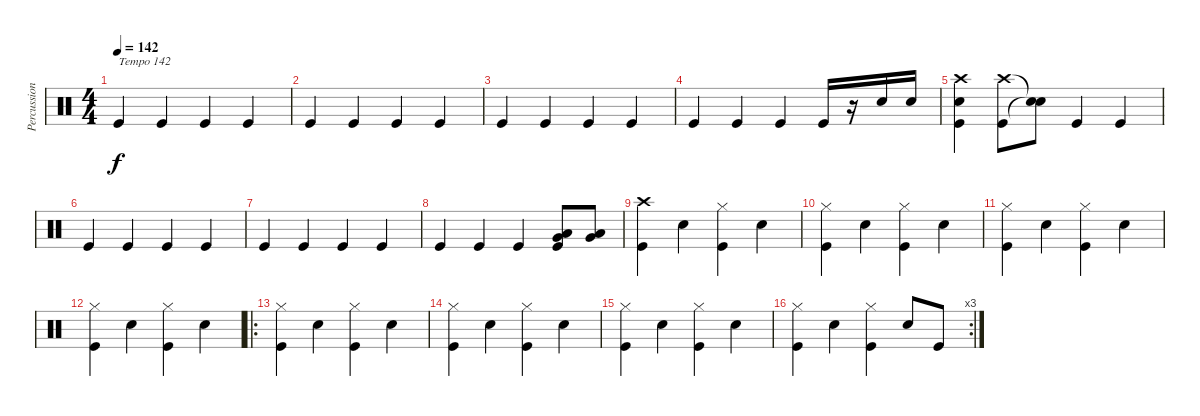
\track ("Percussion" "Percussion") {instrument percussion}
\staff {score}
\articulation defaults
\ts (4 4)
\tempo 142
\clef neutral
\ks c "Kick (hit)".4{txt "Tempo 142" dy f} "Kick (hit)".4 "Kick (hit)".4 "Kick (hit)".4
|
"Kick (hit)".4 "Kick (hit)".4 "Kick (hit)".4 "Kick (hit)".4 |
"Kick (hit)".4 "Kick (hit)".4 "Kick (hit)".4 "Kick (hit)".4 |
"Kick (hit)".4 "Kick (hit)".4 "Kick (hit)".4 "Kick (hit)".16 r.16 "Snare (hit) 2".16 "Snare (hit) 2".16 |
("Crash high (hit)" "Snare (hit) 2" "Kick (hit)").4 ("Crash high (hit)" "Kick (hit)").8 ("Snare (hit)"{t} "Snare (hit)"{t}).8 "Kick (hit)".4 "Kick (hit)".4 |
"Kick (hit)".4 "Kick (hit)".4 "Kick (hit)".4 "Kick (hit)".4 |
"Kick (hit)".4 "Kick (hit)".4 "Kick (hit)".4 "Kick (hit)".4 |
"Kick (hit)".4 "Kick (hit)".4 "Kick (hit)".4 ("Low Floor Tom (hit)" "Very Low Tom (hit)" "Kick (hit)").8 ("Low Floor Tom (hit)" "Very Low Tom (hit)").8 |
("Crash high (hit)" "Kick (hit)").4 "Snare (hit) 2".4 ("Hi-Hat (closed)" "Kick (hit)").4 "Snare (hit) 2".4 |
("Hi-Hat (closed)" "Kick (hit)").4 "Snare (hit) 2".4 ("Hi-Hat (closed)" "Kick (hit)").4 "Snare (hit) 2".4 |
("Hi-Hat (closed)" "Kick (hit)").4 "Snare (hit) 2".4 ("Hi-Hat (closed)" "Kick (hit)").4 "Snare (hit) 2".4 |
("Hi-Hat (closed)" "Kick (hit)").4 "Snare (hit) 2".4 ("Hi-Hat (closed)" "Kick (hit)").4 "Snare (hit) 2".4 |
\ro
("Hi-Hat (closed)" "Kick (hit)").4 "Snare (hit) 2".4 ("Hi-Hat (closed)" "Kick (hit)").4 "Snare (hit) 2".4 |
("Hi-Hat (closed)" "Kick (hit)").4 "Snare (hit) 2".4 ("Hi-Hat (closed)" "Kick (hit)").4 "Snare (hit) 2".4 |
("Hi-Hat (closed)" "Kick (hit)").4 "Snare (hit) 2".4 ("Hi-Hat (closed)" "Kick (hit)").4 "Snare (hit) 2".4 |
\rc 3
("Hi-Hat (closed)" "Kick (hit)").4 "Snare (hit) 2".4 ("Hi-Hat (closed)" "Kick (hit)").4 "Snare (hit) 2".8 "Kick (hit)".8
